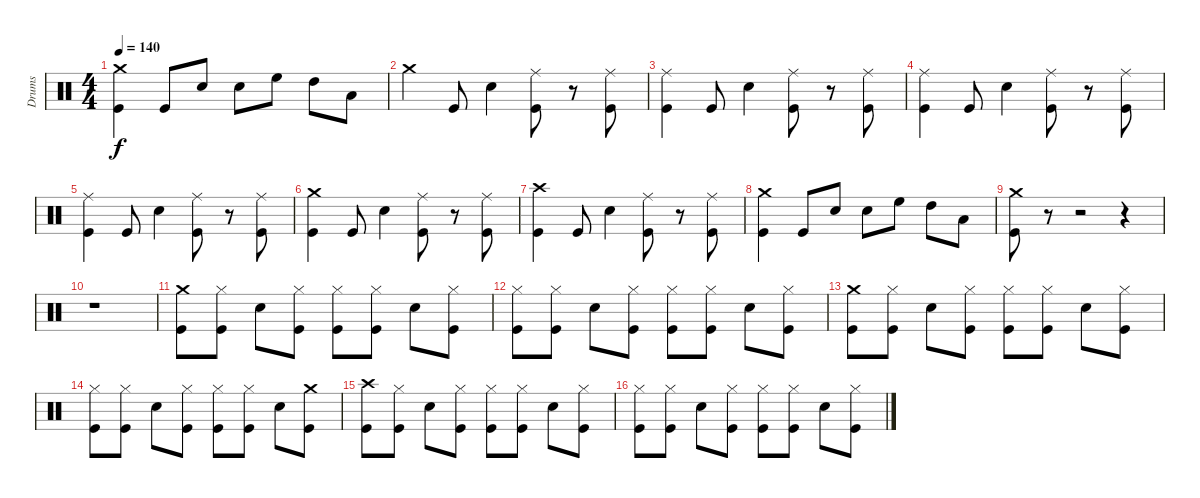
\track ("Drums" "Drums") {instrument percussion}
\staff {score}
\articulation defaults
\ts (4 4)
\tempo 140
\clef neutral
\ks c
("Crash medium (hit)" "Kick (hit)").4{dy f} "Kick (hit)".8 "Electric Snare (hit)".8 "Electric Snare (hit)".8 "High Floor Tom (hit)".8 "High Tom (hit)".8 "Low Tom (hit)".8 |
"Crash medium (hit)".4 "Kick (hit)".8 "Electric Snare (hit)".4 ("Ride (middle)" "Kick (hit)").8 r.8 ("Ride (middle)" "Kick (hit)").8 |
("Ride (middle)" "Kick (hit)").4 "Kick (hit)".8 "Electric Snare (hit)".4 ("Ride (middle)" "Kick (hit)").8 r.8 ("Ride (middle)" "Kick (hit)").8 |
("Ride (middle)" "Kick (hit)").4 "Kick (hit)".8 "Electric Snare (hit)".4 ("Ride (middle)" "Kick (hit)").8 r.8 ("Ride (middle)" "Kick (hit)").8 |
("Ride (middle)" "Kick (hit)").4 "Kick (hit)".8 "Electric Snare (hit)".4 ("Ride (middle)" "Kick (hit)").8 r.8 ("Ride (middle)" "Kick (hit)").8 |
("Crash medium (hit)" "Kick (hit)").4 "Kick (hit)".8 "Electric Snare (hit)".4 ("Ride (middle)" "Kick (hit)").8 r.8 ("Ride (middle)" "Kick (hit)").8 |
("Crash high (hit)" "Kick (hit)").4 "Kick (hit)".8 "Electric Snare (hit)".4 ("Ride (middle)" "Kick (hit)").8 r.8 ("Ride (middle)" "Kick (hit)").8 |
("Crash medium (hit)" "Kick (hit)").4 "Kick (hit)".8 "Electric Snare (hit)".8 "Electric Snare (hit)".8 "High Floor Tom (hit)".8 "High Tom (hit)".8 "Low Tom (hit)".8 |
("Crash medium (hit)" "Kick (hit)").8 r.8 r.2 r.4 |
r.1 |
("Crash medium (hit)" "Kick (hit)").8 ("Hi-Hat (closed)" "Kick (hit)").8 "Electric Snare (hit)".8 ("Hi-Hat (closed)" "Kick (hit)").8 ("Hi-Hat (closed)" "Kick (hit)").8 ("Hi-Hat (closed)" "Kick (hit)").8 "Electric Snare (hit)".8 ("Hi-Hat (closed)" "Kick (hit)").8 |
("Hi-Hat (closed)" "Kick (hit)").8 ("Hi-Hat (closed)" "Kick (hit)").8 "Electric Snare (hit)".8 ("Hi-Hat (closed)" "Kick (hit)").8 ("Hi-Hat (closed)" "Kick (hit)").8 ("Hi-Hat (closed)" "Kick (hit)").8 "Electric Snare (hit)".8 ("Hi-Hat (closed)" "Kick (hit)").8 |
("Crash medium (hit)" "Kick (hit)").8 ("Hi-Hat (closed)" "Kick (hit)").8 "Electric Snare (hit)".8 ("Hi-Hat (closed)" "Kick (hit)").8 ("Hi-Hat (closed)" "Kick (hit)").8 ("Hi-Hat (closed)" "Kick (hit)").8 "Electric Snare (hit)".8 ("Hi-Hat (closed)" "Kick (hit)").8 |
("Hi-Hat (closed)" "Kick (hit)").8 ("Hi-Hat (closed)" "Kick (hit)").8 "Electric Snare (hit)".8 ("Hi-Hat (closed)" "Kick (hit)").8 ("Hi-Hat (closed)" "Kick (hit)").8 ("Hi-Hat (closed)" "Kick (hit)").8 "Electric Snare (hit)".8 ("Crash medium (hit)" "Kick (hit)").8 |
("Crash high (hit)" "Kick (hit)").8 ("Hi-Hat (closed)" "Kick (hit)").8 "Electric Snare (hit)".8 ("Hi-Hat (closed)" "Kick (hit)").8 ("Hi-Hat (closed)" "Kick (hit)").8 ("Hi-Hat (closed)" "Kick (hit)").8 "Electric Snare (hit)".8 ("Hi-Hat (closed)" "Kick (hit)").8 |
("Hi-Hat (closed)" "Kick (hit)").8 ("Hi-Hat (closed)" "Kick (hit)").8 "Electric Snare (hit)".8 ("Hi-Hat (closed)" "Kick (hit)").8 ("Hi-Hat (closed)" "Kick (hit)").8 ("Hi-Hat (closed)" "Kick (hit)").8 "Electric Snare (hit)".8 ("Hi-Hat (closed)" "Kick (hit)").8
